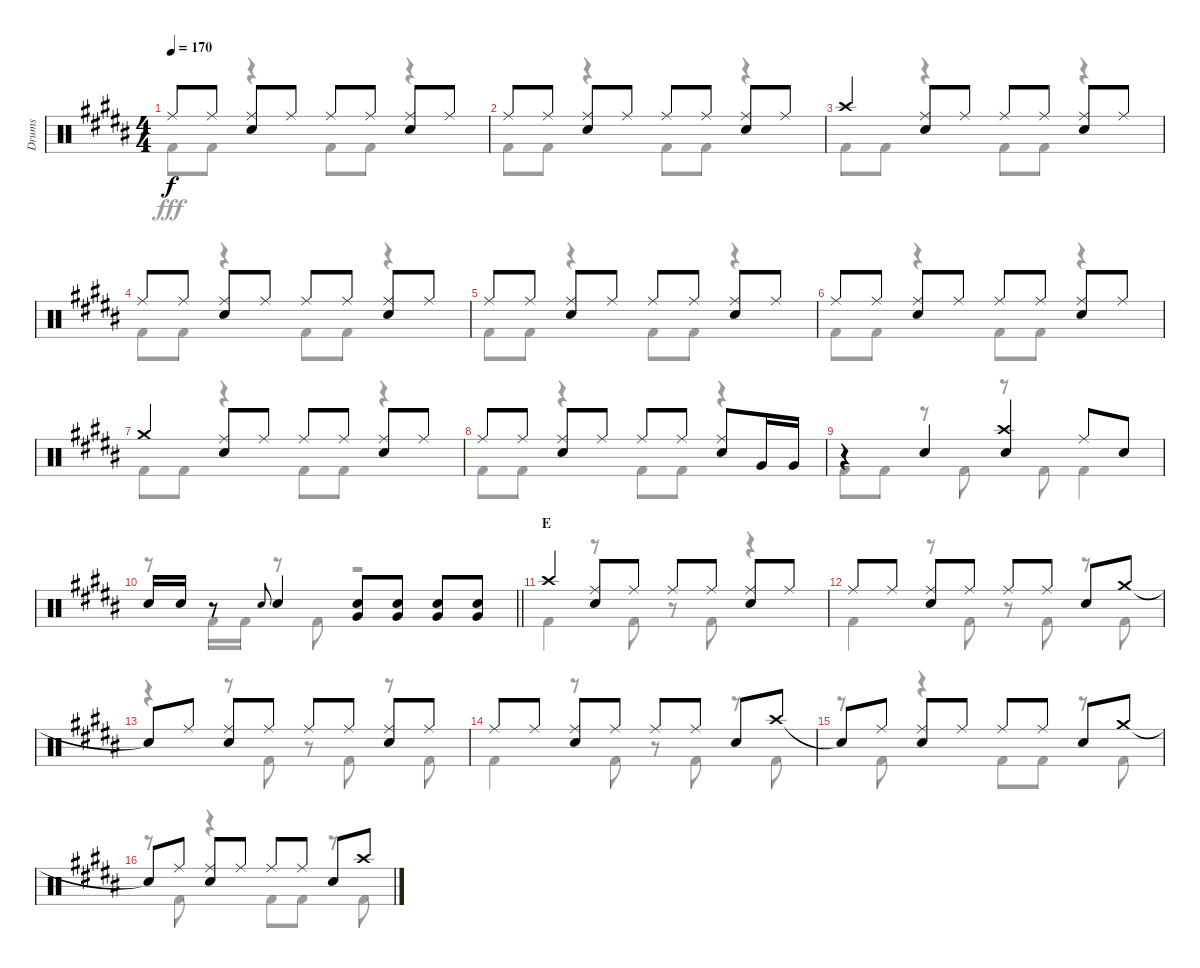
\track ("Drums" "Drums") {instrument percussion}
\staff {score}
\articulation defaults
\voice
\ts (4 4)
\tempo 170
\clef neutral
\ks b "Ride (middle)".8{dy f} "Ride (middle)".8
("Ride (middle)" "Snare (hit) 2").8 "Ride (middle)".8 "Ride (middle)".8 "Ride (middle)".8 ("Ride (middle)" "Snare (hit) 2").8 "Ride (middle)".8 |
"Ride (middle)".8 "Ride (middle)".8 ("Ride (middle)" "Snare (hit) 2").8 "Ride (middle)".8 "Ride (middle)".8 "Ride (middle)".8 ("Ride (middle)" "Snare (hit) 2").8 "Ride (middle)".8 |
"Crash high (hit)".4 ("Ride (middle)" "Snare (hit) 2").8 "Ride (middle)".8 "Ride (middle)".8 "Ride (middle)".8 ("Ride (middle)" "Snare (hit) 2").8 "Ride (middle)".8 |
"Ride (middle)".8 "Ride (middle)".8 ("Ride (middle)" "Snare (hit) 2").8 "Ride (middle)".8 "Ride (middle)".8 "Ride (middle)".8 ("Ride (middle)" "Snare (hit) 2").8 "Ride (middle)".8 |
"Ride (middle)".8 "Ride (middle)".8 ("Ride (middle)" "Snare (hit) 2").8 "Ride (middle)".8 "Ride (middle)".8 "Ride (middle)".8 ("Ride (middle)" "Snare (hit) 2").8 "Ride (middle)".8 |
"Ride (middle)".8 "Ride (middle)".8 ("Ride (middle)" "Snare (hit) 2").8 "Ride (middle)".8 "Ride (middle)".8 "Ride (middle)".8 ("Ride (middle)" "Snare (hit) 2").8 "Ride (middle)".8 |
"Crash medium (hit)".4 ("Ride (middle)" "Snare (hit) 2").8 "Ride (middle)".8 "Ride (middle)".8 "Ride (middle)".8 ("Ride (middle)" "Snare (hit) 2").8 "Ride (middle)".8 |
"Ride (middle)".8 "Ride (middle)".8 ("Ride (middle)" "Snare (hit) 2").8 "Ride (middle)".8 "Ride (middle)".8 "Ride (middle)".8 ("Ride (middle)" "Snare (hit) 2").8 "Very Low Tom (hit)".16 "Very Low Tom (hit)".16 |
r.4 "Snare (hit) 2".4 ("Crash high (hit)" "Snare (hit) 2").4 "Ride (middle)".8 "Snare (hit) 2".8 |
\barLineRight lightlight "Snare (hit) 2".16 "Snare (hit) 2".16
r.8 "Snare (hit) 2".8{gr onbeat} "Snare (hit) 2".4 ("Snare (hit) 2" "Very Low Tom (hit)").8 ("Snare (hit) 2" "Very Low Tom (hit)").8 ("Snare (hit) 2" "Very Low Tom (hit)").8 ("Snare (hit) 2" "Very Low Tom (hit)").8 |
\section ("" "E")
"Crash high (hit)".4 ("Ride (middle)" "Snare (hit) 2").8 "Ride (middle)".8 "Ride (middle)".8 "Ride (middle)".8 ("Ride (middle)" "Snare (hit) 2").8 "Ride (middle)".8 |
"Ride (middle)".8 "Ride (middle)".8 ("Ride (middle)" "Snare (hit) 2").8 "Ride (middle)".8 "Ride (middle)".8 "Ride (middle)".8 "Snare (hit) 2".8 "Crash medium (hit)".8 |
"Snare (hit)"{t}.8 "Ride (middle)".8 ("Ride (middle)" "Snare (hit) 2").8 "Ride (middle)".8 "Ride (middle)".8 "Ride (middle)".8 ("Ride (middle)" "Snare (hit) 2").8 "Ride (middle)".8 |
"Ride (middle)".8 "Ride (middle)".8 ("Ride (middle)" "Snare (hit) 2").8 "Ride (middle)".8 "Ride (middle)".8 "Ride (middle)".8 "Snare (hit) 2".8 "Crash high (hit)".8 |
"Snare (hit)"{t}.8 "Ride (middle)".8 ("Ride (middle)" "Snare (hit) 2").8 "Ride (middle)".8 "Ride (middle)".8 "Ride (middle)".8 "Snare (hit) 2".8 "Crash medium (hit)".8 |
"Snare (hit)"{t}.8 "Ride (middle)".8 ("Ride (middle)" "Snare (hit) 2").8 "Ride (middle)".8 "Ride (middle)".8 "Ride (middle)".8 "Snare (hit) 2".8 "Crash high (hit)".8
\voice
\clef neutral
\ottava regular
\simile none
\ks b "Kick (hit) 2".8{dy fff} "Kick (hit) 2".8
r.4 "Kick (hit) 2".8 "Kick (hit) 2".8 r.4 |
"Kick (hit) 2".8 "Kick (hit) 2".8 r.4 "Kick (hit) 2".8 "Kick (hit) 2".8 r.4 |
"Kick (hit) 2".8 "Kick (hit) 2".8 r.4 "Kick (hit) 2".8 "Kick (hit) 2".8 r.4 |
"Kick (hit) 2".8 "Kick (hit) 2".8 r.4 "Kick (hit) 2".8 "Kick (hit) 2".8 r.4 |
"Kick (hit) 2".8 "Kick (hit) 2".8 r.4 "Kick (hit) 2".8 "Kick (hit) 2".8 r.4 |
"Kick (hit) 2".8 "Kick (hit) 2".8 r.4 "Kick (hit) 2".8 "Kick (hit) 2".8 r.4 |
"Kick (hit) 2".8 "Kick (hit) 2".8 r.4 "Kick (hit) 2".8 "Kick (hit) 2".8 r.4 |
"Kick (hit) 2".8 "Kick (hit) 2".8 r.4 "Kick (hit) 2".8 "Kick (hit) 2".8 r.4 |
"Kick (hit) 2".8 "Kick (hit) 2".8 r.8 "Kick (hit) 2".8 r.8 "Kick (hit) 2".8 "Kick (hit) 2".4 |
\barLineRight lightlight
r.8 "Kick (hit) 2".16 "Kick (hit) 2".16 r.8 "Kick (hit) 2".8 r.2 |
"Kick (hit) 2".4 r.8 "Kick (hit) 2".8 r.8 "Kick (hit) 2".8 r.4 |
"Kick (hit) 2".4 r.8 "Kick (hit) 2".8 r.8 "Kick (hit) 2".8 r.8 "Kick (hit) 2".8 |
r.4 r.8 "Kick (hit) 2".8 r.8 "Kick (hit) 2".8 r.8 "Kick (hit) 2".8 |
"Kick (hit) 2".4 r.8 "Kick (hit) 2".8 r.8 "Kick (hit) 2".8 r.8 "Kick (hit) 2".8 |
r.8 "Kick (hit) 2".8 r.4 "Kick (hit) 2".8 "Kick (hit) 2".8 r.8 "Kick (hit) 2".8 |
r.8 "Kick (hit) 2".8 r.4 "Kick (hit) 2".8 "Kick (hit) 2".8 r.8 "Kick (hit) 2".8
